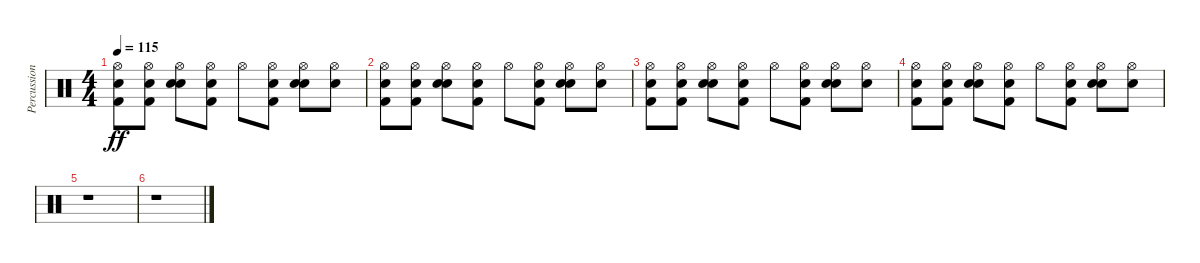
\track ("Percussions / hands" "Percussion") {instrument percussion}
\staff {score}
\articulation defaults
\ts (4 4)
\tempo 115
\clef neutral
\ks c
("Hi-Hat (open)" "Kick (hit) 2" "Hand Clap (hit)").8{dy ff} ("Hi-Hat (open)" "Kick (hit) 2" "Hand Clap (hit)").8 ("Hi-Hat (open)" "Electric Snare (hit)" "Hand Clap (hit)").8 ("Hi-Hat (open)" "Kick (hit) 2" "Hand Clap (hit)").8 "Hi-Hat (open)".8 ("Hi-Hat (open)" "Kick (hit) 2" "Hand Clap (hit)").8 ("Hi-Hat (open)" "Electric Snare (hit)" "Hand Clap (hit)").8 ("Hi-Hat (open)" "Hand Clap (hit)").8 |
("Hi-Hat (open)" "Kick (hit) 2" "Hand Clap (hit)").8 ("Hi-Hat (open)" "Kick (hit) 2" "Hand Clap (hit)").8 ("Hi-Hat (open)" "Electric Snare (hit)" "Hand Clap (hit)").8 ("Hi-Hat (open)" "Kick (hit) 2" "Hand Clap (hit)").8 "Hi-Hat (open)".8 ("Hi-Hat (open)" "Kick (hit) 2" "Hand Clap (hit)").8 ("Hi-Hat (open)" "Electric Snare (hit)" "Hand Clap (hit)").8{volume 0} ("Hi-Hat (open)" "Hand Clap (hit)").8 |
("Hi-Hat (open)" "Kick (hit) 2" "Hand Clap (hit)").8 ("Hi-Hat (open)" "Kick (hit) 2" "Hand Clap (hit)").8 ("Hi-Hat (open)" "Electric Snare (hit)" "Hand Clap (hit)").8 ("Hi-Hat (open)" "Kick (hit) 2" "Hand Clap (hit)").8 "Hi-Hat (open)".8 ("Hi-Hat (open)" "Kick (hit) 2" "Hand Clap (hit)").8 ("Hi-Hat (open)" "Electric Snare (hit)" "Hand Clap (hit)").8 ("Hi-Hat (open)" "Hand Clap (hit)").8 |
("Hi-Hat (open)" "Kick (hit) 2" "Hand Clap (hit)").8 ("Hi-Hat (open)" "Kick (hit) 2" "Hand Clap (hit)").8 ("Hi-Hat (open)" "Electric Snare (hit)" "Hand Clap (hit)").8 ("Hi-Hat (open)" "Kick (hit) 2" "Hand Clap (hit)").8 "Hi-Hat (open)".8 ("Hi-Hat (open)" "Kick (hit) 2" "Hand Clap (hit)").8 ("Hi-Hat (open)" "Electric Snare (hit)" "Hand Clap (hit)").8 ("Hi-Hat (open)" "Hand Clap (hit)").8 |
r.1 |
r.1
